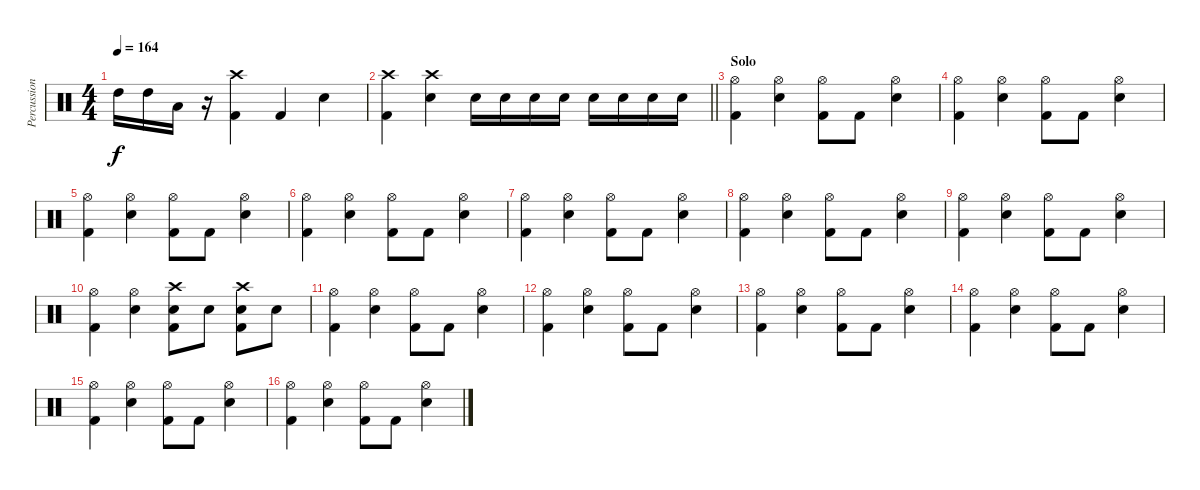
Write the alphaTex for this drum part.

\track ("Percussions" "Percussion") {instrument percussion}
\staff {score}
\articulation defaults
\ts (4 4)
\tempo 164
\clef neutral
\ks c "High Tom (hit)".16{dy f} "High Tom (hit)".16 "Low Tom (hit)".16
r.16 ("Crash high (hit)" "Kick (hit) 2").4 "Kick (hit) 2".4 "Electric Snare (hit)".4 |
\barLineRight lightlight
("Crash high (hit)" "Kick (hit) 2").4 ("Crash high (hit)" "Electric Snare (hit)").4 "Electric Snare (hit)".16 "Electric Snare (hit)".16 "Electric Snare (hit)".16 "Electric Snare (hit)".16 "Electric Snare (hit)".16 "Electric Snare (hit)".16 "Electric Snare (hit)".16 "Electric Snare (hit)".16 |
\section ("" "Solo")
("Hi-Hat (open)" "Kick (hit) 2").4 ("Hi-Hat (open)" "Electric Snare (hit)").4 ("Hi-Hat (open)" "Kick (hit) 2").8 "Kick (hit) 2".8 ("Hi-Hat (open)" "Electric Snare (hit)").4 |
("Hi-Hat (open)" "Kick (hit) 2").4 ("Hi-Hat (open)" "Electric Snare (hit)").4 ("Hi-Hat (open)" "Kick (hit) 2").8 "Kick (hit) 2".8 ("Hi-Hat (open)" "Electric Snare (hit)").4 |
("Hi-Hat (open)" "Kick (hit) 2").4 ("Hi-Hat (open)" "Electric Snare (hit)").4 ("Hi-Hat (open)" "Kick (hit) 2").8 "Kick (hit) 2".8 ("Hi-Hat (open)" "Electric Snare (hit)").4 |
("Hi-Hat (open)" "Kick (hit) 2").4 ("Hi-Hat (open)" "Electric Snare (hit)").4 ("Hi-Hat (open)" "Kick (hit) 2").8 "Kick (hit) 2".8 ("Hi-Hat (open)" "Electric Snare (hit)").4 |
("Hi-Hat (open)" "Kick (hit) 2").4 ("Hi-Hat (open)" "Electric Snare (hit)").4 ("Hi-Hat (open)" "Kick (hit) 2").8 "Kick (hit) 2".8 ("Hi-Hat (open)" "Electric Snare (hit)").4 |
("Hi-Hat (open)" "Kick (hit) 2").4 ("Hi-Hat (open)" "Electric Snare (hit)").4 ("Hi-Hat (open)" "Kick (hit) 2").8 "Kick (hit) 2".8 ("Hi-Hat (open)" "Electric Snare (hit)").4 |
("Hi-Hat (open)" "Kick (hit) 2").4 ("Hi-Hat (open)" "Electric Snare (hit)").4 ("Hi-Hat (open)" "Kick (hit) 2").8 "Kick (hit) 2".8 ("Hi-Hat (open)" "Electric Snare (hit)").4 |
("Hi-Hat (open)" "Kick (hit) 2").4 ("Hi-Hat (open)" "Electric Snare (hit)").4 ("Crash high (hit)" "Electric Snare (hit)" "Kick (hit) 2").8 "Electric Snare (hit)".8 ("Crash high (hit)" "Electric Snare (hit)" "Kick (hit) 2").8 "Electric Snare (hit)".8 |
("Hi-Hat (open)" "Kick (hit) 2").4 ("Hi-Hat (open)" "Electric Snare (hit)").4 ("Hi-Hat (open)" "Kick (hit) 2").8 "Kick (hit) 2".8 ("Hi-Hat (open)" "Electric Snare (hit)").4 |
("Hi-Hat (open)" "Kick (hit) 2").4 ("Hi-Hat (open)" "Electric Snare (hit)").4 ("Hi-Hat (open)" "Kick (hit) 2").8 "Kick (hit) 2".8 ("Hi-Hat (open)" "Electric Snare (hit)").4 |
("Hi-Hat (open)" "Kick (hit) 2").4 ("Hi-Hat (open)" "Electric Snare (hit)").4 ("Hi-Hat (open)" "Kick (hit) 2").8 "Kick (hit) 2".8 ("Hi-Hat (open)" "Electric Snare (hit)").4 |
("Hi-Hat (open)" "Kick (hit) 2").4 ("Hi-Hat (open)" "Electric Snare (hit)").4 ("Hi-Hat (open)" "Kick (hit) 2").8 "Kick (hit) 2".8 ("Hi-Hat (open)" "Electric Snare (hit)").4 |
("Hi-Hat (open)" "Kick (hit) 2").4 ("Hi-Hat (open)" "Electric Snare (hit)").4 ("Hi-Hat (open)" "Kick (hit) 2").8 "Kick (hit) 2".8 ("Hi-Hat (open)" "Electric Snare (hit)").4 |
("Hi-Hat (open)" "Kick (hit) 2").4 ("Hi-Hat (open)" "Electric Snare (hit)").4 ("Hi-Hat (open)" "Kick (hit) 2").8 "Kick (hit) 2".8 ("Hi-Hat (open)" "Electric Snare (hit)").4
